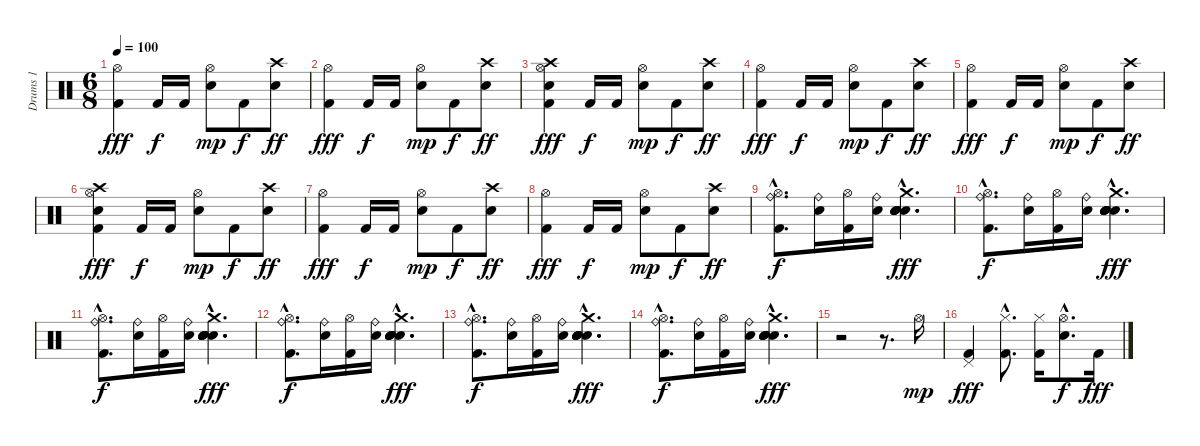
\track ("Drums 1" "Drums 1") {instrument percussion}
\staff {score}
\articulation defaults
\ts (6 8)
\tempo 100
\clef neutral
\ks c
("Kick (hit) 2" "Hi-Hat (open)").4{dy fff} "Kick (hit) 2".16{dy f} "Kick (hit) 2".16 ("Snare (hit) 2" "Hi-Hat (open)").8{dy mp} "Kick (hit) 2".8{dy f} ("Snare (hit) 2" "Crash high (hit)").8{dy ff} |
("Kick (hit) 2" "Hi-Hat (open)").4{dy fff} "Kick (hit) 2".16{dy f} "Kick (hit) 2".16 ("Snare (hit) 2" "Hi-Hat (open)").8{dy mp} "Kick (hit) 2".8{dy f} ("Snare (hit) 2" "Crash high (hit)").8{dy ff} |
("Kick (hit) 2" "Snare (hit) 2" "Crash high (hit)" "Hi-Hat (open)").4{dy fff} "Kick (hit) 2".16{dy f} "Kick (hit) 2".16 ("Snare (hit) 2" "Hi-Hat (open)").8{dy mp} "Kick (hit) 2".8{dy f} ("Snare (hit) 2" "Crash high (hit)").8{dy ff} |
("Kick (hit) 2" "Hi-Hat (open)").4{dy fff} "Kick (hit) 2".16{dy f} "Kick (hit) 2".16 ("Snare (hit) 2" "Hi-Hat (open)").8{dy mp} "Kick (hit) 2".8{dy f} ("Snare (hit) 2" "Crash high (hit)").8{dy ff} |
("Kick (hit) 2" "Hi-Hat (open)").4{dy fff} "Kick (hit) 2".16{dy f} "Kick (hit) 2".16 ("Snare (hit) 2" "Hi-Hat (open)").8{dy mp} "Kick (hit) 2".8{dy f} ("Snare (hit) 2" "Crash high (hit)").8{dy ff} |
("Kick (hit) 2" "Snare (hit) 2" "Crash high (hit)" "Hi-Hat (open)").4{dy fff} "Kick (hit) 2".16{dy f} "Kick (hit) 2".16 ("Snare (hit) 2" "Hi-Hat (open)").8{dy mp} "Kick (hit) 2".8{dy f} ("Snare (hit) 2" "Crash high (hit)").8{dy ff} |
("Kick (hit) 2" "Hi-Hat (open)").4{dy fff} "Kick (hit) 2".16{dy f} "Kick (hit) 2".16 ("Snare (hit) 2" "Hi-Hat (open)").8{dy mp} "Kick (hit) 2".8{dy f} ("Snare (hit) 2" "Crash high (hit)").8{dy ff} |
("Kick (hit) 2" "Hi-Hat (open)").4{dy fff} "Kick (hit) 2".16{dy f} "Kick (hit) 2".16 ("Snare (hit) 2" "Hi-Hat (open)").8{dy mp} "Kick (hit) 2".8{dy f} ("Snare (hit) 2" "Crash high (hit)").8{dy ff} |
("Kick (hit) 2"{hac} "Ride (bell)"{hac} "Hi-Hat (open)"{hac}).8{d dy f} ("Snare (hit) 2" "Ride (bell)").16 ("Kick (hit) 2" "Hi-Hat (open)").16 ("Snare (hit) 2" "Ride (bell)").16 ("Snare (hit) 2"{hac} "Snare (hit) 2"{hac} "Snare (hit) 2"{hac} "Snare (hit) 2"{hac} "Snare (hit) 2"{hac} "Crash medium (hit)"{hac}).4{d bu 480 dy fff} |
("Kick (hit) 2"{hac} "Ride (bell)"{hac} "Hi-Hat (open)"{hac}).8{d dy f} ("Snare (hit) 2" "Ride (bell)").16 ("Kick (hit) 2" "Hi-Hat (open)").16 ("Snare (hit) 2" "Ride (bell)").16 ("Snare (hit) 2"{hac} "Snare (hit) 2"{hac} "Snare (hit) 2"{hac} "Snare (hit) 2"{hac} "Snare (hit) 2"{hac} "Crash medium (hit)"{hac}).4{d bu 480 dy fff} |
("Kick (hit) 2"{hac} "Ride (bell)"{hac} "Hi-Hat (open)"{hac}).8{d dy f} ("Snare (hit) 2" "Ride (bell)").16 ("Kick (hit) 2" "Hi-Hat (open)").16 ("Snare (hit) 2" "Ride (bell)").16 ("Snare (hit) 2"{hac} "Snare (hit) 2"{hac} "Snare (hit) 2"{hac} "Snare (hit) 2"{hac} "Snare (hit) 2"{hac} "Crash medium (hit)"{hac}).4{d bu 480 dy fff} |
("Kick (hit) 2"{hac} "Ride (bell)"{hac} "Hi-Hat (open)"{hac}).8{d dy f} ("Snare (hit) 2" "Ride (bell)").16 ("Kick (hit) 2" "Hi-Hat (open)").16 ("Snare (hit) 2" "Ride (bell)").16 ("Snare (hit) 2"{hac} "Snare (hit) 2"{hac} "Snare (hit) 2"{hac} "Snare (hit) 2"{hac} "Snare (hit) 2"{hac} "Crash medium (hit)"{hac}).4{d bu 480 dy fff} |
("Kick (hit) 2"{hac} "Ride (bell)"{hac} "Hi-Hat (open)"{hac}).8{d dy f} ("Snare (hit) 2" "Ride (bell)").16 ("Kick (hit) 2" "Hi-Hat (open)").16 ("Snare (hit) 2" "Ride (bell)").16 ("Snare (hit) 2"{hac} "Snare (hit) 2"{hac} "Snare (hit) 2"{hac} "Snare (hit) 2"{hac} "Snare (hit) 2"{hac} "Crash medium (hit)"{hac}).4{d bu 480 dy fff} |
("Kick (hit) 2"{hac} "Ride (bell)"{hac} "Hi-Hat (open)"{hac}).8{d dy f} ("Snare (hit) 2" "Ride (bell)").16 ("Kick (hit) 2" "Hi-Hat (open)").16 ("Snare (hit) 2" "Ride (bell)").16 ("Snare (hit) 2"{hac} "Snare (hit) 2"{hac} "Snare (hit) 2"{hac} "Snare (hit) 2"{hac} "Snare (hit) 2"{hac} "Crash medium (hit)"{hac}).4{d bu 480 dy fff} |
r.2 r.8{d} "Hi-Hat (open)".16{dy mp} |
("Kick (hit) 2" "Pedal Hi-Hat (hit)").4{dy fff} ("Kick (hit) 2"{hac} "Hi-Hat (closed)"{hac}).8{d} ("Kick (hit) 2" "Hi-Hat (closed)").16 ("Snare (hit) 2"{hac} "Hi-Hat (open)"{hac}).8{d dy f} "Kick (hit) 2".16{dy fff}
